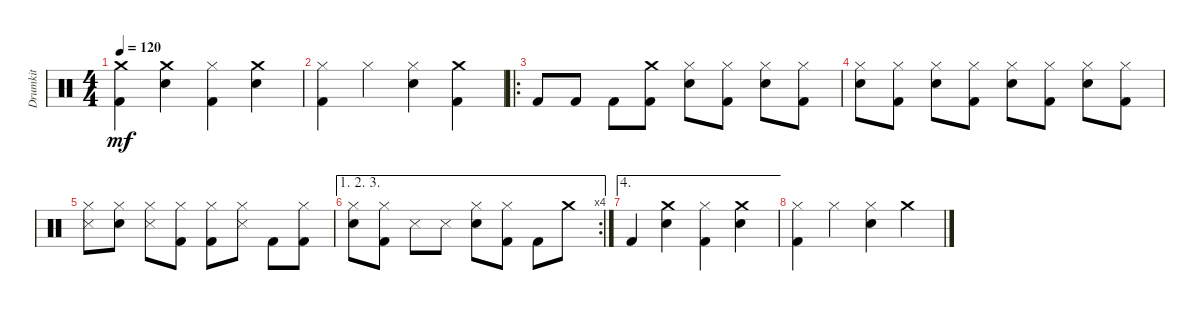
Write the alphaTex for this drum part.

\track ("Drumkit" "Drumkit") {instrument percussion}
\staff {score}
\articulation defaults
\ts (4 4)
\tempo 120
\clef neutral
\ks c
("Kick (hit) 2" "Crash medium (hit)").4{dy mf} ("Crash medium (hit)" "Snare (hit) 2").4 ("Kick (hit) 2" "Hi-Hat (closed)").4 ("Crash medium (hit)" "Snare (hit) 2").4 |
("Hi-Hat (closed)" "Kick (hit) 2").4 "Hi-Hat (closed)".4 ("Snare (hit) 2" "Hi-Hat (closed)").4 ("Crash medium (hit)" "Kick (hit) 2").4 |
\ro "Kick (hit) 2".8 "Kick (hit) 2".8 "Kick (hit) 2".8
("Crash medium (hit)" "Kick (hit) 2").8 ("Snare (hit) 2" "Hi-Hat (closed)").8 ("Kick (hit) 2" "Hi-Hat (closed)").8 ("Hi-Hat (closed)" "Snare (hit) 2").8 ("Hi-Hat (closed)" "Kick (hit) 2").8 |
("Hi-Hat (closed)" "Snare (hit) 2").8 ("Hi-Hat (closed)" "Kick (hit) 2").8 ("Hi-Hat (closed)" "Snare (hit) 2").8 ("Hi-Hat (closed)" "Kick (hit) 2").8 ("Hi-Hat (closed)" "Snare (hit) 2").8 ("Hi-Hat (closed)" "Kick (hit) 2").8 ("Hi-Hat (closed)" "Snare (hit) 2").8 ("Hi-Hat (closed)" "Kick (hit) 2").8 |
("Snare (side stick) 3" "Hi-Hat (closed)").8 ("Snare (hit) 2" "Hi-Hat (closed)").8 ("Snare (side stick) 3" "Hi-Hat (closed)").8 ("Kick (hit) 2" "Hi-Hat (closed)").8 ("Hi-Hat (closed)" "Kick (hit) 2").8 ("Snare (side stick) 3" "Hi-Hat (closed)").8 "Kick (hit) 2".8 ("Kick (hit) 2" "Hi-Hat (closed)").8 |
\ae (1 2 3)
\rc 4
("Snare (hit) 2" "Hi-Hat (closed)").8 ("Kick (hit) 2" "Hi-Hat (closed)").8 "Snare (side stick) 3".8 "Snare (side stick) 3".8 ("Hi-Hat (closed)" "Snare (hit) 2").8 ("Hi-Hat (closed)" "Kick (hit) 2").8 "Kick (hit) 2".8 "Crash medium (hit)".8 |
\ae 4 "Kick (hit) 2".4
("Crash medium (hit)" "Snare (hit) 2").4 ("Kick (hit) 2" "Hi-Hat (closed)").4 ("Crash medium (hit)" "Snare (hit) 2").4 |
("Hi-Hat (closed)" "Kick (hit) 2").4 "Hi-Hat (closed)".4 ("Snare (hit) 2" "Hi-Hat (closed)").4 "Crash medium (hit)".4
